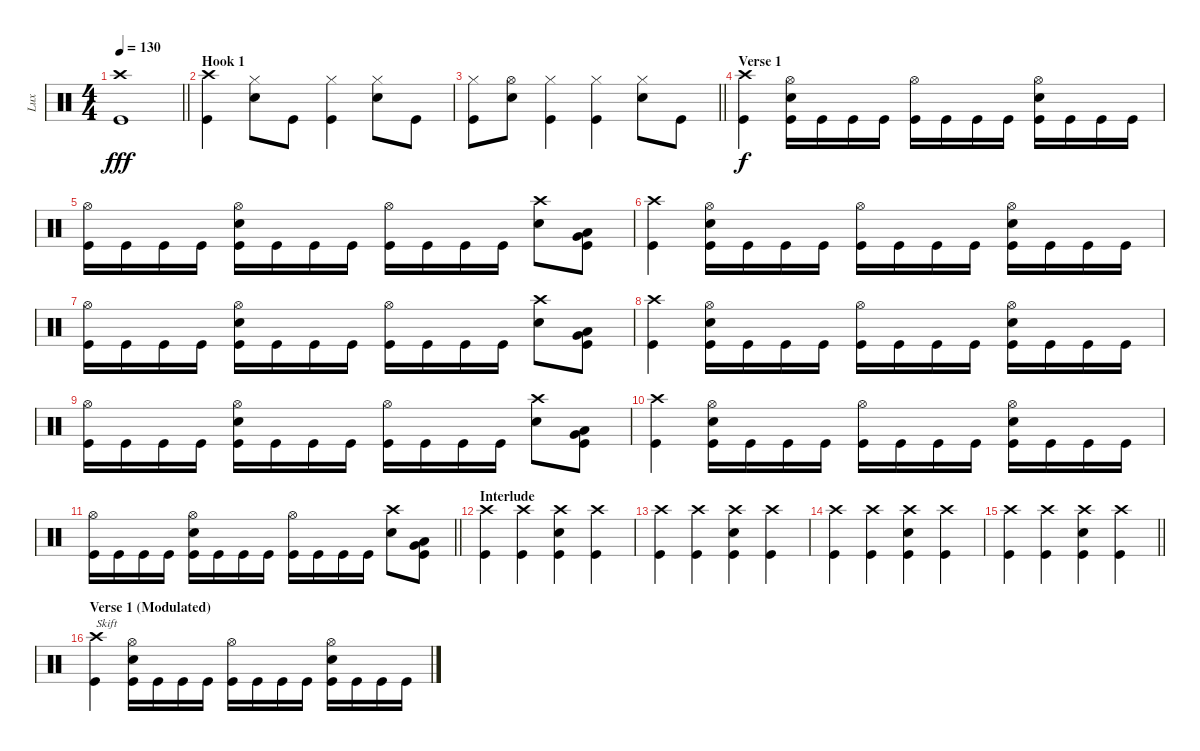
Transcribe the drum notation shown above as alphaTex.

\track ("Lux" "Lux") {instrument percussion}
\staff {score}
\articulation defaults
\ts (4 4)
\tempo 130
\clef neutral
\barLineRight lightlight
\ks c
("Crash high (hit)" "Kick (hit)").1{dy fff} |
\section ("" "Hook 1")
("Crash high (hit)" "Kick (hit)").4 ("Hi-Hat (closed)" "Snare (hit) 2").8 "Kick (hit)".8 ("Hi-Hat (closed)" "Kick (hit)").4 ("Hi-Hat (closed)" "Snare (hit) 2").8 "Kick (hit)".8 |
\barLineRight lightlight
("Hi-Hat (closed)" "Kick (hit)").8 ("Hi-Hat (open)" "Snare (hit) 2").8 ("Hi-Hat (closed)" "Kick (hit)").4 ("Hi-Hat (closed)" "Kick (hit)").4 ("Hi-Hat (closed)" "Snare (hit) 2").8 "Kick (hit)".8 |
\section ("" "Verse 1")
("Crash high (hit)" "Kick (hit)").4{dy f} ("Hi-Hat (open)" "Snare (hit) 2" "Kick (hit)").16 "Kick (hit)".16 "Kick (hit)".16 "Kick (hit)".16 ("Hi-Hat (open)" "Kick (hit)").16 "Kick (hit)".16 "Kick (hit)".16 "Kick (hit)".16 ("Hi-Hat (open)" "Snare (hit) 2" "Kick (hit)").16 "Kick (hit)".16 "Kick (hit)".16 "Kick (hit)".16 |
("Hi-Hat (open)" "Kick (hit)").16 "Kick (hit)".16 "Kick (hit)".16 "Kick (hit)".16 ("Hi-Hat (open)" "Snare (hit) 2" "Kick (hit)").16 "Kick (hit)".16 "Kick (hit)".16 "Kick (hit)".16 ("Hi-Hat (open)" "Kick (hit)").16 "Kick (hit)".16 "Kick (hit)".16 "Kick (hit)".16 ("Crash high (hit)" "Snare (hit) 2").8 ("Very Low Tom (hit)" "Low Tom (hit)" "Kick (hit)").8 |
("Crash high (hit)" "Kick (hit)").4 ("Hi-Hat (open)" "Snare (hit) 2" "Kick (hit)").16 "Kick (hit)".16 "Kick (hit)".16 "Kick (hit)".16 ("Hi-Hat (open)" "Kick (hit)").16 "Kick (hit)".16 "Kick (hit)".16 "Kick (hit)".16 ("Hi-Hat (open)" "Snare (hit) 2" "Kick (hit)").16 "Kick (hit)".16 "Kick (hit)".16 "Kick (hit)".16 |
("Hi-Hat (open)" "Kick (hit)").16 "Kick (hit)".16 "Kick (hit)".16 "Kick (hit)".16 ("Hi-Hat (open)" "Snare (hit) 2" "Kick (hit)").16 "Kick (hit)".16 "Kick (hit)".16 "Kick (hit)".16 ("Hi-Hat (open)" "Kick (hit)").16 "Kick (hit)".16 "Kick (hit)".16 "Kick (hit)".16 ("Crash high (hit)" "Snare (hit) 2").8 ("Low Tom (hit)" "Very Low Tom (hit)" "Kick (hit)").8 |
("Crash high (hit)" "Kick (hit)").4 ("Hi-Hat (open)" "Snare (hit) 2" "Kick (hit)").16 "Kick (hit)".16 "Kick (hit)".16 "Kick (hit)".16 ("Hi-Hat (open)" "Kick (hit)").16 "Kick (hit)".16 "Kick (hit)".16 "Kick (hit)".16 ("Hi-Hat (open)" "Snare (hit) 2" "Kick (hit)").16 "Kick (hit)".16 "Kick (hit)".16 "Kick (hit)".16 |
("Hi-Hat (open)" "Kick (hit)").16 "Kick (hit)".16 "Kick (hit)".16 "Kick (hit)".16 ("Hi-Hat (open)" "Snare (hit) 2" "Kick (hit)").16 "Kick (hit)".16 "Kick (hit)".16 "Kick (hit)".16 ("Hi-Hat (open)" "Kick (hit)").16 "Kick (hit)".16 "Kick (hit)".16 "Kick (hit)".16 ("Crash high (hit)" "Snare (hit) 2").8 ("Very Low Tom (hit)" "Low Tom (hit)" "Kick (hit)").8 |
("Crash high (hit)" "Kick (hit)").4 ("Hi-Hat (open)" "Snare (hit) 2" "Kick (hit)").16 "Kick (hit)".16 "Kick (hit)".16 "Kick (hit)".16 ("Hi-Hat (open)" "Kick (hit)").16 "Kick (hit)".16 "Kick (hit)".16 "Kick (hit)".16 ("Hi-Hat (open)" "Snare (hit) 2" "Kick (hit)").16 "Kick (hit)".16 "Kick (hit)".16 "Kick (hit)".16 |
\barLineRight lightlight
("Hi-Hat (open)" "Kick (hit)").16 "Kick (hit)".16 "Kick (hit)".16 "Kick (hit)".16 ("Hi-Hat (open)" "Snare (hit) 2" "Kick (hit)").16 "Kick (hit)".16 "Kick (hit)".16 "Kick (hit)".16 ("Hi-Hat (open)" "Kick (hit)").16 "Kick (hit)".16 "Kick (hit)".16 "Kick (hit)".16 ("Crash high (hit)" "Snare (hit) 2").8 ("Low Tom (hit)" "Very Low Tom (hit)" "Kick (hit)").8 |
\section ("" "Interlude")
("Crash high (hit)" "Kick (hit)").4 ("Crash high (hit)" "Kick (hit)").4 ("Crash high (hit)" "Snare (hit) 2" "Kick (hit)").4 ("Crash high (hit)" "Kick (hit)").4 |
("Crash high (hit)" "Kick (hit)").4 ("Crash high (hit)" "Kick (hit)").4 ("Crash high (hit)" "Snare (hit) 2" "Kick (hit)").4 ("Crash high (hit)" "Kick (hit)").4 |
("Crash high (hit)" "Kick (hit)").4 ("Crash high (hit)" "Kick (hit)").4 ("Crash high (hit)" "Snare (hit) 2" "Kick (hit)").4 ("Crash high (hit)" "Kick (hit)").4 |
\barLineRight lightlight
("Crash high (hit)" "Kick (hit)").4 ("Crash high (hit)" "Kick (hit)").4 ("Crash high (hit)" "Snare (hit) 2" "Kick (hit)").4 ("Crash high (hit)" "Kick (hit)").4 |
\section ("" "Verse 1 (Modulated)")
("Crash high (hit)" "Kick (hit)").4{txt "Skift"} ("Hi-Hat (open)" "Snare (hit) 2" "Kick (hit)").16 "Kick (hit)".16 "Kick (hit)".16 "Kick (hit)".16 ("Hi-Hat (open)" "Kick (hit)").16 "Kick (hit)".16 "Kick (hit)".16 "Kick (hit)".16 ("Hi-Hat (open)" "Snare (hit) 2" "Kick (hit)").16 "Kick (hit)".16 "Kick (hit)".16 "Kick (hit)".16
